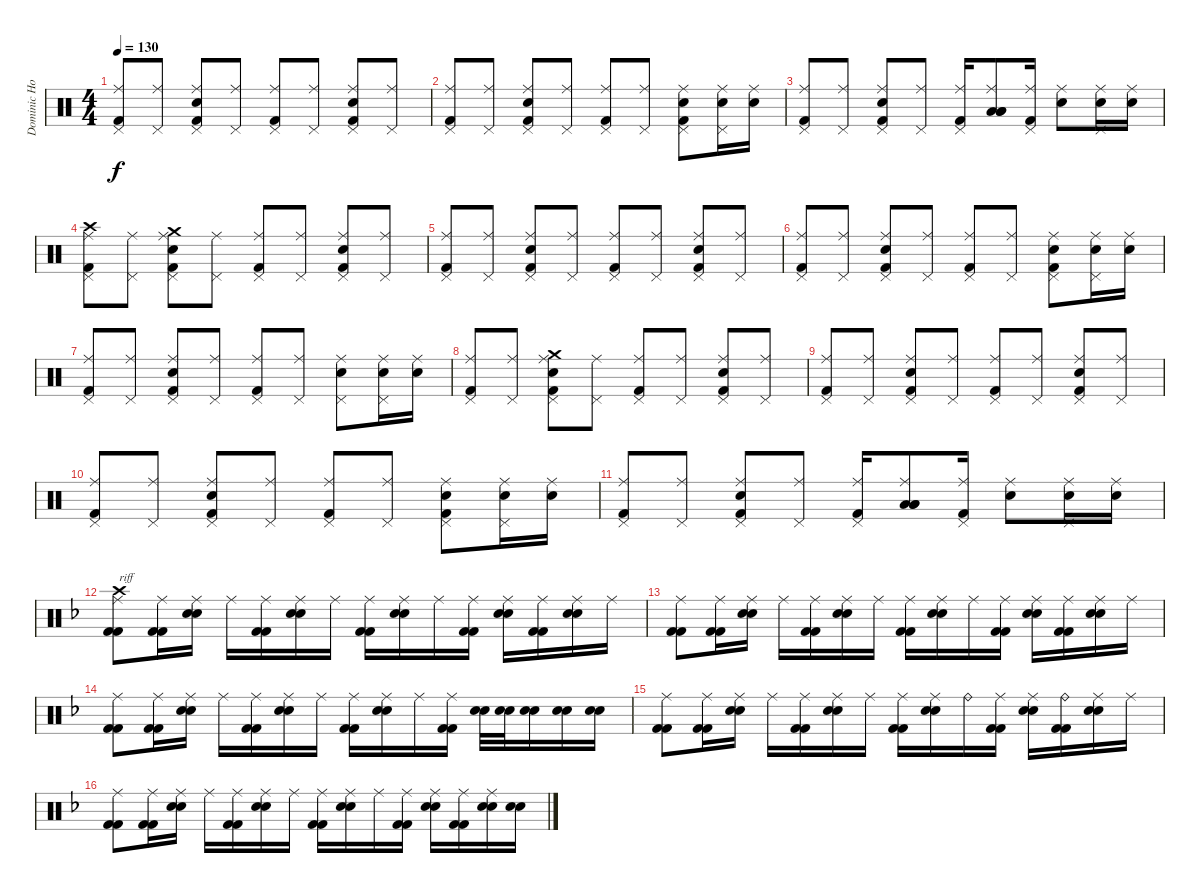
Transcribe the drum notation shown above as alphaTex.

\track ("Dominic Howard" "Dominic Ho") {instrument percussion}
\staff {score}
\articulation defaults
\ts (4 4)
\tempo 130
\clef neutral
\ks c
("Ride (middle)" "Kick (hit) 2" "Pedal Hi-Hat (hit)").8{dy f} ("Ride (middle)" "Pedal Hi-Hat (hit)").8 ("Ride (middle)" "Kick (hit) 2" "Electric Snare (hit)" "Pedal Hi-Hat (hit)").8 ("Ride (middle)" "Pedal Hi-Hat (hit)").8 ("Ride (middle)" "Kick (hit) 2" "Pedal Hi-Hat (hit)").8 ("Ride (middle)" "Pedal Hi-Hat (hit)").8 ("Ride (middle)" "Kick (hit) 2" "Electric Snare (hit)" "Pedal Hi-Hat (hit)").8 ("Ride (middle)" "Pedal Hi-Hat (hit)").8 |
("Ride (middle)" "Kick (hit) 2" "Pedal Hi-Hat (hit)").8 ("Ride (middle)" "Pedal Hi-Hat (hit)").8 ("Ride (middle)" "Kick (hit) 2" "Electric Snare (hit)" "Pedal Hi-Hat (hit)").8 ("Ride (middle)" "Pedal Hi-Hat (hit)").8 ("Ride (middle)" "Kick (hit) 2" "Pedal Hi-Hat (hit)").8 ("Ride (middle)" "Pedal Hi-Hat (hit)").8 ("Ride (middle)" "Kick (hit) 2" "Electric Snare (hit)" "Pedal Hi-Hat (hit)").8 ("Ride (middle)" "Electric Snare (hit)" "Pedal Hi-Hat (hit)").16 ("Ride (middle)" "Electric Snare (hit)").16 |
("Ride (middle)" "Kick (hit) 2" "Pedal Hi-Hat (hit)").8 ("Ride (middle)" "Pedal Hi-Hat (hit)").8 ("Ride (middle)" "Kick (hit) 2" "Electric Snare (hit)" "Pedal Hi-Hat (hit)").8 ("Ride (middle)" "Pedal Hi-Hat (hit)").8 ("Ride (middle)" "Kick (hit) 2" "Pedal Hi-Hat (hit)").16 ("Ride (middle)" "Low Tom (hit)" "Low Tom (hit)" "Low Tom (hit)").8 ("Ride (middle)" "Kick (hit) 2" "Pedal Hi-Hat (hit)").16 ("Ride (middle)" "Electric Snare (hit)").8 ("Ride (middle)" "Electric Snare (hit)" "Pedal Hi-Hat (hit)").16 ("Ride (middle)" "Electric Snare (hit)").16 |
("Crash high (hit)" "Ride (middle)" "Kick (hit) 2" "Pedal Hi-Hat (hit)").8 ("Ride (middle)" "Pedal Hi-Hat (hit)").8 ("Crash medium (hit)" "Ride (middle)" "Kick (hit) 2" "Electric Snare (hit)" "Pedal Hi-Hat (hit)").8 ("Ride (middle)" "Pedal Hi-Hat (hit)").8 ("Ride (middle)" "Kick (hit) 2" "Pedal Hi-Hat (hit)").8 ("Ride (middle)" "Pedal Hi-Hat (hit)").8 ("Ride (middle)" "Kick (hit) 2" "Electric Snare (hit)" "Pedal Hi-Hat (hit)").8 ("Ride (middle)" "Pedal Hi-Hat (hit)").8 |
("Ride (middle)" "Kick (hit) 2" "Pedal Hi-Hat (hit)").8 ("Ride (middle)" "Pedal Hi-Hat (hit)").8 ("Ride (middle)" "Kick (hit) 2" "Electric Snare (hit)" "Pedal Hi-Hat (hit)").8 ("Ride (middle)" "Pedal Hi-Hat (hit)").8 ("Ride (middle)" "Kick (hit) 2" "Pedal Hi-Hat (hit)").8 ("Ride (middle)" "Pedal Hi-Hat (hit)").8 ("Ride (middle)" "Kick (hit) 2" "Electric Snare (hit)" "Pedal Hi-Hat (hit)").8 ("Ride (middle)" "Pedal Hi-Hat (hit)").8 |
("Ride (middle)" "Kick (hit) 2" "Pedal Hi-Hat (hit)").8 ("Ride (middle)" "Pedal Hi-Hat (hit)").8 ("Ride (middle)" "Kick (hit) 2" "Electric Snare (hit)" "Pedal Hi-Hat (hit)").8 ("Ride (middle)" "Pedal Hi-Hat (hit)").8 ("Ride (middle)" "Kick (hit) 2" "Pedal Hi-Hat (hit)").8 ("Ride (middle)" "Pedal Hi-Hat (hit)").8 ("Ride (middle)" "Kick (hit) 2" "Electric Snare (hit)" "Pedal Hi-Hat (hit)").8 ("Ride (middle)" "Electric Snare (hit)" "Pedal Hi-Hat (hit)").16 ("Ride (middle)" "Electric Snare (hit)").16 |
("Ride (middle)" "Kick (hit) 2" "Pedal Hi-Hat (hit)").8 ("Ride (middle)" "Pedal Hi-Hat (hit)").8 ("Ride (middle)" "Kick (hit) 2" "Electric Snare (hit)" "Pedal Hi-Hat (hit)").8 ("Ride (middle)" "Pedal Hi-Hat (hit)").8 ("Ride (middle)" "Kick (hit) 2" "Pedal Hi-Hat (hit)").8 ("Ride (middle)" "Pedal Hi-Hat (hit)").8 ("Ride (middle)" "Electric Snare (hit)" "Pedal Hi-Hat (hit)").8 ("Ride (middle)" "Electric Snare (hit)" "Pedal Hi-Hat (hit)").16 ("Ride (middle)" "Electric Snare (hit)").16 |
("Ride (middle)" "Kick (hit) 2" "Pedal Hi-Hat (hit)").8 ("Ride (middle)" "Pedal Hi-Hat (hit)").8 ("Crash medium (hit)" "Ride (middle)" "Kick (hit) 2" "Electric Snare (hit)" "Pedal Hi-Hat (hit)").8 ("Ride (middle)" "Pedal Hi-Hat (hit)").8 ("Ride (middle)" "Kick (hit) 2" "Pedal Hi-Hat (hit)").8 ("Ride (middle)" "Pedal Hi-Hat (hit)").8 ("Ride (middle)" "Kick (hit) 2" "Electric Snare (hit)" "Pedal Hi-Hat (hit)").8 ("Ride (middle)" "Pedal Hi-Hat (hit)").8 |
("Ride (middle)" "Kick (hit) 2" "Pedal Hi-Hat (hit)").8 ("Ride (middle)" "Pedal Hi-Hat (hit)").8 ("Ride (middle)" "Kick (hit) 2" "Electric Snare (hit)" "Pedal Hi-Hat (hit)").8 ("Ride (middle)" "Pedal Hi-Hat (hit)").8 ("Ride (middle)" "Kick (hit) 2" "Pedal Hi-Hat (hit)").8 ("Ride (middle)" "Pedal Hi-Hat (hit)").8 ("Ride (middle)" "Kick (hit) 2" "Electric Snare (hit)" "Pedal Hi-Hat (hit)").8 ("Ride (middle)" "Pedal Hi-Hat (hit)").8 |
("Ride (middle)" "Kick (hit) 2" "Pedal Hi-Hat (hit)").8 ("Ride (middle)" "Pedal Hi-Hat (hit)").8 ("Ride (middle)" "Kick (hit) 2" "Electric Snare (hit)" "Pedal Hi-Hat (hit)").8 ("Ride (middle)" "Pedal Hi-Hat (hit)").8 ("Ride (middle)" "Kick (hit) 2" "Pedal Hi-Hat (hit)").8 ("Ride (middle)" "Pedal Hi-Hat (hit)").8 ("Ride (middle)" "Kick (hit) 2" "Electric Snare (hit)" "Pedal Hi-Hat (hit)").8 ("Ride (middle)" "Electric Snare (hit)" "Pedal Hi-Hat (hit)").16 ("Ride (middle)" "Electric Snare (hit)").16 |
("Ride (middle)" "Kick (hit) 2" "Pedal Hi-Hat (hit)").8 ("Ride (middle)" "Pedal Hi-Hat (hit)").8 ("Ride (middle)" "Kick (hit) 2" "Electric Snare (hit)" "Pedal Hi-Hat (hit)").8 ("Ride (middle)" "Pedal Hi-Hat (hit)").8 ("Ride (middle)" "Kick (hit) 2" "Pedal Hi-Hat (hit)").16 ("Ride (middle)" "Low Tom (hit)" "Low Tom (hit)" "Low Tom (hit)").8 ("Ride (middle)" "Kick (hit) 2" "Pedal Hi-Hat (hit)").16 ("Ride (middle)" "Electric Snare (hit)").8 ("Ride (middle)" "Electric Snare (hit)" "Pedal Hi-Hat (hit)").16 ("Ride (middle)" "Electric Snare (hit)").16 |
\ks f
("Crash high (hit)" "Ride (middle)" "Kick (hit) 2" "Kick (hit) 2").8{txt "riff"} ("Ride (middle)" "Kick (hit) 2" "Kick (hit) 2").16 ("Ride (middle)" "Electric Snare (hit)" "Electric Snare (hit)").16 "Ride (middle)".16 ("Ride (middle)" "Kick (hit) 2" "Kick (hit) 2").16 ("Ride (middle)" "Electric Snare (hit)" "Electric Snare (hit)").16 "Ride (middle)".16 ("Ride (middle)" "Kick (hit) 2" "Kick (hit) 2").16 ("Ride (middle)" "Electric Snare (hit)" "Electric Snare (hit)").16 "Ride (middle)".16 ("Ride (middle)" "Kick (hit) 2" "Kick (hit) 2").16 ("Ride (middle)" "Electric Snare (hit)" "Electric Snare (hit)").16 ("Ride (middle)" "Kick (hit) 2" "Kick (hit) 2").16 ("Ride (middle)" "Electric Snare (hit)" "Electric Snare (hit)").16 "Ride (middle)".16 |
("Ride (middle)" "Kick (hit) 2" "Kick (hit) 2").8 ("Ride (middle)" "Kick (hit) 2" "Kick (hit) 2").16 ("Ride (middle)" "Electric Snare (hit)" "Electric Snare (hit)").16 "Ride (middle)".16 ("Ride (middle)" "Kick (hit) 2" "Kick (hit) 2").16 ("Ride (middle)" "Electric Snare (hit)" "Electric Snare (hit)").16 "Ride (middle)".16 ("Ride (middle)" "Kick (hit) 2" "Kick (hit) 2").16 ("Ride (middle)" "Electric Snare (hit)" "Electric Snare (hit)").16 "Ride (middle)".16 ("Ride (middle)" "Kick (hit) 2" "Kick (hit) 2").16 ("Ride (middle)" "Electric Snare (hit)" "Electric Snare (hit)").16 ("Ride (middle)" "Kick (hit) 2" "Kick (hit) 2").16 ("Ride (middle)" "Electric Snare (hit)" "Electric Snare (hit)").16 "Ride (middle)".16 |
("Ride (middle)" "Kick (hit) 2" "Kick (hit) 2").8 ("Ride (middle)" "Kick (hit) 2" "Kick (hit) 2").16 ("Ride (middle)" "Electric Snare (hit)" "Electric Snare (hit)").16 "Ride (middle)".16 ("Ride (middle)" "Kick (hit) 2" "Kick (hit) 2").16 ("Ride (middle)" "Electric Snare (hit)" "Electric Snare (hit)").16 "Ride (middle)".16 ("Ride (middle)" "Kick (hit) 2" "Kick (hit) 2").16 ("Ride (middle)" "Electric Snare (hit)" "Electric Snare (hit)").16 "Ride (middle)".16 ("Ride (middle)" "Kick (hit) 2" "Kick (hit) 2").16 ("Electric Snare (hit)" "Electric Snare (hit)").32 ("Electric Snare (hit)" "Electric Snare (hit)").32 ("Electric Snare (hit)" "Electric Snare (hit)").16 ("Electric Snare (hit)" "Electric Snare (hit)").16 ("Electric Snare (hit)" "Electric Snare (hit)").16 |
("Ride (middle)" "Kick (hit) 2" "Kick (hit) 2").8 ("Ride (middle)" "Kick (hit) 2" "Kick (hit) 2").16 ("Ride (middle)" "Electric Snare (hit)" "Electric Snare (hit)").16 "Ride (middle)".16 ("Ride (middle)" "Kick (hit) 2" "Kick (hit) 2").16 ("Ride (middle)" "Electric Snare (hit)" "Electric Snare (hit)").16 "Ride (middle)".16 ("Ride (middle)" "Kick (hit) 2" "Kick (hit) 2").16 ("Ride (middle)" "Electric Snare (hit)" "Electric Snare (hit)").16 "Ride (bell)".16 ("Ride (middle)" "Kick (hit) 2" "Kick (hit) 2").16 ("Ride (middle)" "Electric Snare (hit)" "Electric Snare (hit)").16 ("Ride (bell)" "Kick (hit) 2" "Kick (hit) 2").16 ("Ride (middle)" "Electric Snare (hit)" "Electric Snare (hit)").16 "Ride (middle)".16 |
("Ride (middle)" "Kick (hit) 2" "Kick (hit) 2").8 ("Ride (middle)" "Kick (hit) 2" "Kick (hit) 2").16 ("Ride (middle)" "Electric Snare (hit)" "Electric Snare (hit)").16 "Ride (middle)".16 ("Ride (middle)" "Kick (hit) 2" "Kick (hit) 2").16 ("Ride (middle)" "Electric Snare (hit)" "Electric Snare (hit)").16 "Ride (middle)".16 ("Ride (middle)" "Kick (hit) 2" "Kick (hit) 2").16 ("Ride (middle)" "Electric Snare (hit)" "Electric Snare (hit)").16 "Ride (middle)".16 ("Ride (middle)" "Kick (hit) 2" "Kick (hit) 2").16 ("Ride (middle)" "Electric Snare (hit)" "Electric Snare (hit)").16 ("Ride (middle)" "Kick (hit) 2" "Kick (hit) 2").16 ("Ride (middle)" "Electric Snare (hit)" "Electric Snare (hit)").16 ("Electric Snare (hit)" "Electric Snare (hit)").16
